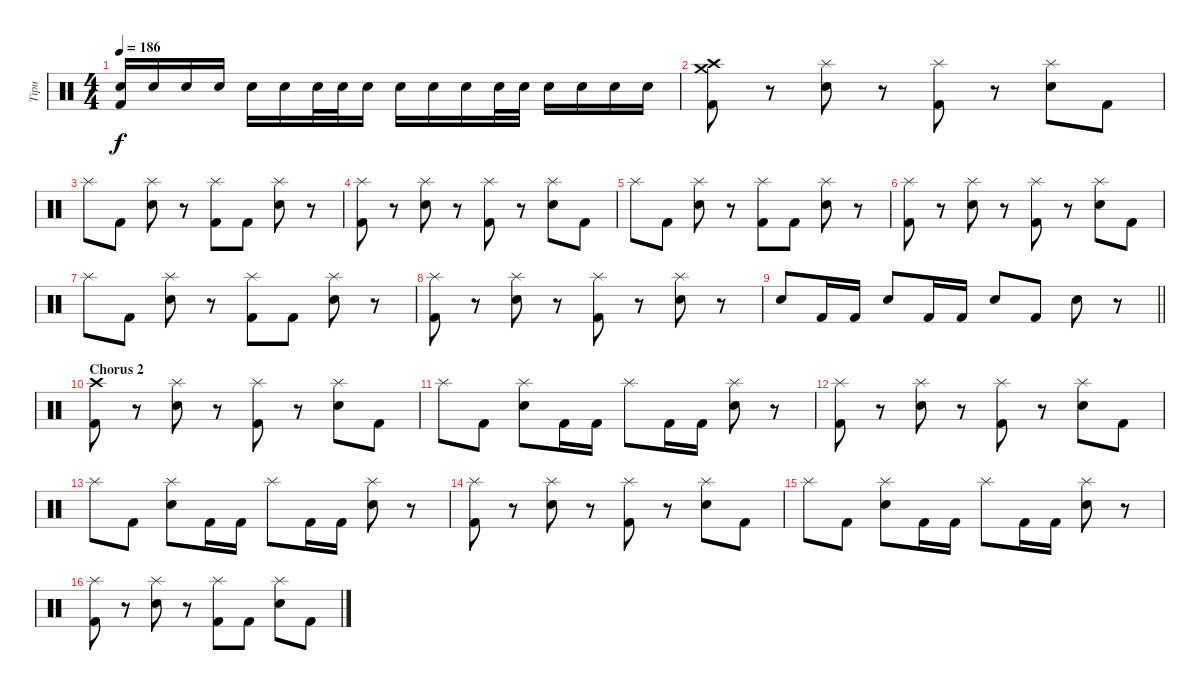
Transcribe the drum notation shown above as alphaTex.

\track ("Tipu" "Tipu") {instrument percussion}
\staff {score}
\articulation defaults
\ts (4 4)
\tempo 186
\clef neutral
\ks c
("Electric Snare (hit)" "Kick (hit) 2").16{dy f} "Electric Snare (hit)".16 "Electric Snare (hit)".16 "Electric Snare (hit)".16 "Electric Snare (hit)".16 "Electric Snare (hit)".16 "Electric Snare (hit)".32 "Electric Snare (hit)".32 "Electric Snare (hit)".16 "Electric Snare (hit)".16 "Electric Snare (hit)".16 "Electric Snare (hit)".16 "Electric Snare (hit)".32 "Electric Snare (hit)".32 "Electric Snare (hit)".16 "Electric Snare (hit)".16 "Electric Snare (hit)".16 "Electric Snare (hit)".16 |
("Crash high (hit)" "Crash medium (hit)" "Kick (hit) 2").8 r.8 ("Splash (hit)" "Electric Snare (hit)").8 r.8 ("Splash (hit)" "Kick (hit) 2").8 r.8 ("Splash (hit)" "Electric Snare (hit)").8 "Kick (hit) 2".8 |
"Splash (hit)".8 "Kick (hit) 2".8 ("Splash (hit)" "Electric Snare (hit)").8 r.8 ("Splash (hit)" "Kick (hit) 2").8 "Kick (hit) 2".8 ("Splash (hit)" "Electric Snare (hit)").8 r.8 |
("Splash (hit)" "Kick (hit) 2").8 r.8 ("Splash (hit)" "Electric Snare (hit)").8 r.8 ("Splash (hit)" "Kick (hit) 2").8 r.8 ("Splash (hit)" "Electric Snare (hit)").8 "Kick (hit) 2".8 |
"Splash (hit)".8 "Kick (hit) 2".8 ("Splash (hit)" "Electric Snare (hit)").8 r.8 ("Splash (hit)" "Kick (hit) 2").8 "Kick (hit) 2".8 ("Splash (hit)" "Electric Snare (hit)").8 r.8 |
("Splash (hit)" "Kick (hit) 2").8 r.8 ("Splash (hit)" "Electric Snare (hit)").8 r.8 ("Splash (hit)" "Kick (hit) 2").8 r.8 ("Splash (hit)" "Electric Snare (hit)").8 "Kick (hit) 2".8 |
"Splash (hit)".8 "Kick (hit) 2".8 ("Splash (hit)" "Electric Snare (hit)").8 r.8 ("Splash (hit)" "Kick (hit) 2").8 "Kick (hit) 2".8 ("Splash (hit)" "Electric Snare (hit)").8 r.8 |
("Splash (hit)" "Kick (hit) 2").8 r.8 ("Splash (hit)" "Electric Snare (hit)").8 r.8 ("Splash (hit)" "Kick (hit) 2").8 r.8 ("Splash (hit)" "Electric Snare (hit)").8 r.8 |
\barLineRight lightlight "Electric Snare (hit)".8 "Kick (hit) 2".16 "Kick (hit) 2".16 "Electric Snare (hit)".8 "Kick (hit) 2".16 "Kick (hit) 2".16 "Electric Snare (hit)".8 "Kick (hit) 2".8 "Electric Snare (hit)".8
r.8 |
\section ("" "Chorus 2")
("Crash high (hit)" "Kick (hit) 2").8 r.8 ("Splash (hit)" "Electric Snare (hit)").8 r.8 ("Splash (hit)" "Kick (hit) 2").8 r.8 ("Splash (hit)" "Electric Snare (hit)").8 "Kick (hit) 2".8 |
"Splash (hit)".8 "Kick (hit) 2".8 ("Splash (hit)" "Electric Snare (hit)").8 "Kick (hit) 2".16 "Kick (hit) 2".16 "Splash (hit)".8 "Kick (hit) 2".16 "Kick (hit) 2".16 ("Splash (hit)" "Electric Snare (hit)").8 r.8 |
("Splash (hit)" "Kick (hit) 2").8 r.8 ("Splash (hit)" "Electric Snare (hit)").8 r.8 ("Splash (hit)" "Kick (hit) 2").8 r.8 ("Splash (hit)" "Electric Snare (hit)").8 "Kick (hit) 2".8 |
"Splash (hit)".8 "Kick (hit) 2".8 ("Splash (hit)" "Electric Snare (hit)").8 "Kick (hit) 2".16 "Kick (hit) 2".16 "Splash (hit)".8 "Kick (hit) 2".16 "Kick (hit) 2".16 ("Splash (hit)" "Electric Snare (hit)").8 r.8 |
("Splash (hit)" "Kick (hit) 2").8 r.8 ("Splash (hit)" "Electric Snare (hit)").8 r.8 ("Splash (hit)" "Kick (hit) 2").8 r.8 ("Splash (hit)" "Electric Snare (hit)").8 "Kick (hit) 2".8 |
"Splash (hit)".8 "Kick (hit) 2".8 ("Splash (hit)" "Electric Snare (hit)").8 "Kick (hit) 2".16 "Kick (hit) 2".16 "Splash (hit)".8 "Kick (hit) 2".16 "Kick (hit) 2".16 ("Splash (hit)" "Electric Snare (hit)").8 r.8 |
("Splash (hit)" "Kick (hit) 2").8 r.8 ("Splash (hit)" "Electric Snare (hit)").8 r.8 ("Splash (hit)" "Kick (hit) 2").8 "Kick (hit) 2".8 ("Splash (hit)" "Electric Snare (hit)").8 "Kick (hit) 2".8
